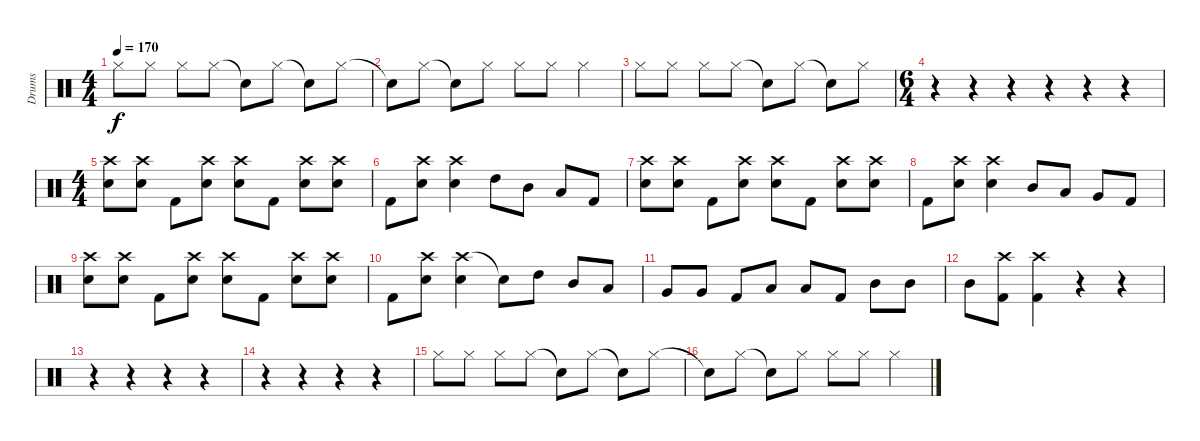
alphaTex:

\track ("Drums" "Drums") {instrument percussion}
\staff {score}
\articulation defaults
\ts (4 4)
\tempo 170
\clef neutral
\ks c "Hi-Hat (closed)".8{dy f} "Hi-Hat (closed)".8 "Hi-Hat (closed)".8 "Hi-Hat (closed)".8 "Snare (hit)"{t}.8 "Hi-Hat (closed)".8 "Snare (hit)"{t}.8 "Hi-Hat (closed)".8
|
"Snare (hit)"{t}.8 "Hi-Hat (closed)".8 "Snare (hit)"{t}.8 "Hi-Hat (closed)".8 "Hi-Hat (closed)".8 "Hi-Hat (closed)".8 "Hi-Hat (closed)".4 |
"Hi-Hat (closed)".8 "Hi-Hat (closed)".8 "Hi-Hat (closed)".8 "Hi-Hat (closed)".8 "Snare (hit)"{t}.8 "Hi-Hat (closed)".8 "Snare (hit)"{t}.8 "Hi-Hat (closed)".8 |
\ts (6 4)
r.4 r.4 r.4 r.4 r.4 r.4 |
\ts (4 4)
("Crash high (hit)" "Electric Snare (hit)").8 ("Crash high (hit)" "Electric Snare (hit)").8 "Kick (hit) 2".8 ("Crash high (hit)" "Electric Snare (hit)").8 ("Crash high (hit)" "Electric Snare (hit)").8 "Kick (hit) 2".8 ("Crash high (hit)" "Electric Snare (hit)").8 ("Crash high (hit)" "Electric Snare (hit)").8 |
"Kick (hit) 2".8 ("Crash high (hit)" "Electric Snare (hit)").8 ("Crash high (hit)" "Electric Snare (hit)").4 "High Tom (hit)".8 "Mid Tom (hit)".8 "Low Tom (hit)".8 "Kick (hit) 2".8 |
("Crash high (hit)" "Electric Snare (hit)").8 ("Crash high (hit)" "Electric Snare (hit)").8 "Kick (hit) 2".8 ("Crash high (hit)" "Electric Snare (hit)").8 ("Crash high (hit)" "Electric Snare (hit)").8 "Kick (hit) 2".8 ("Crash high (hit)" "Electric Snare (hit)").8 ("Crash high (hit)" "Electric Snare (hit)").8 |
"Kick (hit) 2".8 ("Crash high (hit)" "Electric Snare (hit)").8 ("Crash high (hit)" "Electric Snare (hit)").4 "Mid Tom (hit)".8 "Low Tom (hit)".8 "Very Low Tom (hit)".8 "Kick (hit) 2".8 |
("Crash high (hit)" "Electric Snare (hit)").8 ("Crash high (hit)" "Electric Snare (hit)").8 "Kick (hit) 2".8 ("Crash high (hit)" "Electric Snare (hit)").8 ("Crash high (hit)" "Electric Snare (hit)").8 "Kick (hit) 2".8 ("Crash high (hit)" "Electric Snare (hit)").8 ("Crash high (hit)" "Electric Snare (hit)").8 |
"Kick (hit) 2".8 ("Crash high (hit)" "Electric Snare (hit)").8 ("Crash high (hit)" "Electric Snare (hit)").4 "Snare (hit)"{t}.8 "High Tom (hit)".8 "Mid Tom (hit)".8 "Low Tom (hit)".8 |
"Very Low Tom (hit)".8 "Very Low Tom (hit)".8 "Kick (hit) 2".8 "Low Tom (hit)".8 "Low Tom (hit)".8 "Kick (hit) 2".8 "Mid Tom (hit)".8 "Mid Tom (hit)".8 |
"Mid Tom (hit)".8 ("Crash high (hit)" "Kick (hit) 2").8 ("Crash high (hit)" "Kick (hit) 2").4 r.4 r.4 |
r.4 r.4 r.4 r.4 |
r.4 r.4 r.4 r.4 |
"Hi-Hat (closed)".8 "Hi-Hat (closed)".8 "Hi-Hat (closed)".8 "Hi-Hat (closed)".8 "Snare (hit)"{t}.8 "Hi-Hat (closed)".8 "Snare (hit)"{t}.8 "Hi-Hat (closed)".8 |
"Snare (hit)"{t}.8 "Hi-Hat (closed)".8 "Snare (hit)"{t}.8 "Hi-Hat (closed)".8 "Hi-Hat (closed)".8 "Hi-Hat (closed)".8 "Hi-Hat (closed)".4
